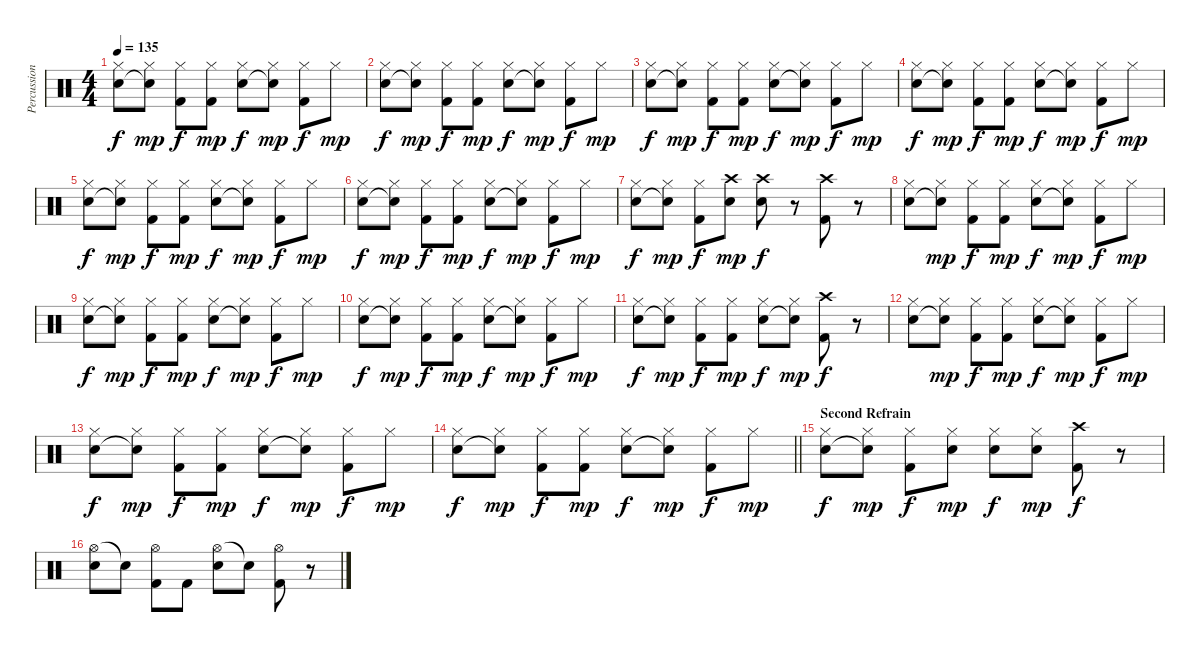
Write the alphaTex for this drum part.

\track ("Percussion" "Percussion") {instrument percussion}
\staff {score}
\articulation defaults
\ts (4 4)
\tempo 135
\clef neutral
\ks c
("Hi-Hat (closed)" "Electric Snare (hit)").8{dy f} ("Hi-Hat (closed)" "Electric Snare (hit)"{t}).8{dy mp} ("Hi-Hat (closed)" "Kick (hit) 2").8{dy f} ("Hi-Hat (closed)" "Kick (hit) 2").8{dy mp} ("Hi-Hat (closed)" "Electric Snare (hit)").8{dy f} ("Hi-Hat (closed)" "Electric Snare (hit)"{t}).8{dy mp} ("Hi-Hat (closed)" "Kick (hit) 2").8{dy f} "Hi-Hat (closed)".8{dy mp} |
("Hi-Hat (closed)" "Electric Snare (hit)").8{dy f} ("Hi-Hat (closed)" "Electric Snare (hit)"{t}).8{dy mp} ("Hi-Hat (closed)" "Kick (hit) 2").8{dy f} ("Hi-Hat (closed)" "Kick (hit) 2").8{dy mp} ("Hi-Hat (closed)" "Electric Snare (hit)").8{dy f} ("Hi-Hat (closed)" "Electric Snare (hit)"{t}).8{dy mp} ("Hi-Hat (closed)" "Kick (hit) 2").8{dy f} "Hi-Hat (closed)".8{dy mp} |
("Hi-Hat (closed)" "Electric Snare (hit)").8{dy f} ("Hi-Hat (closed)" "Electric Snare (hit)"{t}).8{dy mp} ("Hi-Hat (closed)" "Kick (hit) 2").8{dy f} ("Hi-Hat (closed)" "Kick (hit) 2").8{dy mp} ("Hi-Hat (closed)" "Electric Snare (hit)").8{dy f} ("Hi-Hat (closed)" "Electric Snare (hit)"{t}).8{dy mp} ("Hi-Hat (closed)" "Kick (hit) 2").8{dy f} "Hi-Hat (closed)".8{dy mp} |
("Hi-Hat (closed)" "Electric Snare (hit)").8{dy f} ("Hi-Hat (closed)" "Electric Snare (hit)"{t}).8{dy mp} ("Hi-Hat (closed)" "Kick (hit) 2").8{dy f} ("Hi-Hat (closed)" "Kick (hit) 2").8{dy mp} ("Hi-Hat (closed)" "Electric Snare (hit)").8{dy f} ("Hi-Hat (closed)" "Electric Snare (hit)"{t}).8{dy mp} ("Hi-Hat (closed)" "Kick (hit) 2").8{dy f} "Hi-Hat (closed)".8{dy mp} |
("Hi-Hat (closed)" "Electric Snare (hit)").8{dy f} ("Hi-Hat (closed)" "Electric Snare (hit)"{t}).8{dy mp} ("Hi-Hat (closed)" "Kick (hit) 2").8{dy f} ("Hi-Hat (closed)" "Kick (hit) 2").8{dy mp} ("Hi-Hat (closed)" "Electric Snare (hit)").8{dy f} ("Hi-Hat (closed)" "Electric Snare (hit)"{t}).8{dy mp} ("Hi-Hat (closed)" "Kick (hit) 2").8{dy f} "Hi-Hat (closed)".8{dy mp} |
("Hi-Hat (closed)" "Electric Snare (hit)").8{dy f} ("Hi-Hat (closed)" "Electric Snare (hit)"{t}).8{dy mp} ("Hi-Hat (closed)" "Kick (hit) 2").8{dy f} ("Hi-Hat (closed)" "Kick (hit) 2").8{dy mp} ("Hi-Hat (closed)" "Electric Snare (hit)").8{dy f} ("Hi-Hat (closed)" "Electric Snare (hit)"{t}).8{dy mp} ("Hi-Hat (closed)" "Kick (hit) 2").8{dy f} "Hi-Hat (closed)".8{dy mp} |
("Hi-Hat (closed)" "Electric Snare (hit)").8{dy f} ("Hi-Hat (closed)" "Electric Snare (hit)"{t}).8{dy mp} ("Hi-Hat (closed)" "Kick (hit) 2").8{dy f} ("Crash high (hit)" "Electric Snare (hit)").8{dy mp} ("Crash high (hit)" "Electric Snare (hit)").8{dy f} r.8 ("Crash high (hit)" "Kick (hit) 2").8 r.8 |
("Hi-Hat (closed)" "Electric Snare (hit)").8 ("Hi-Hat (closed)" "Electric Snare (hit)"{t}).8{dy mp} ("Hi-Hat (closed)" "Kick (hit) 2").8{dy f} ("Hi-Hat (closed)" "Kick (hit) 2").8{dy mp} ("Hi-Hat (closed)" "Electric Snare (hit)").8{dy f} ("Hi-Hat (closed)" "Electric Snare (hit)"{t}).8{dy mp} ("Hi-Hat (closed)" "Kick (hit) 2").8{dy f} "Hi-Hat (closed)".8{dy mp} |
("Hi-Hat (closed)" "Electric Snare (hit)").8{dy f} ("Hi-Hat (closed)" "Electric Snare (hit)"{t}).8{dy mp} ("Hi-Hat (closed)" "Kick (hit) 2").8{dy f} ("Hi-Hat (closed)" "Kick (hit) 2").8{dy mp} ("Hi-Hat (closed)" "Electric Snare (hit)").8{dy f} ("Hi-Hat (closed)" "Electric Snare (hit)"{t}).8{dy mp} ("Hi-Hat (closed)" "Kick (hit) 2").8{dy f} "Hi-Hat (closed)".8{dy mp} |
("Hi-Hat (closed)" "Electric Snare (hit)").8{dy f} ("Hi-Hat (closed)" "Electric Snare (hit)"{t}).8{dy mp} ("Hi-Hat (closed)" "Kick (hit) 2").8{dy f} ("Hi-Hat (closed)" "Kick (hit) 2").8{dy mp} ("Hi-Hat (closed)" "Electric Snare (hit)").8{dy f} ("Hi-Hat (closed)" "Electric Snare (hit)"{t}).8{dy mp} ("Hi-Hat (closed)" "Kick (hit) 2").8{dy f} "Hi-Hat (closed)".8{dy mp} |
("Hi-Hat (closed)" "Electric Snare (hit)").8{dy f} ("Hi-Hat (closed)" "Electric Snare (hit)"{t}).8{dy mp} ("Hi-Hat (closed)" "Kick (hit) 2").8{dy f} ("Hi-Hat (closed)" "Kick (hit) 2").8{dy mp} ("Hi-Hat (closed)" "Electric Snare (hit)").8{dy f} ("Hi-Hat (closed)" "Electric Snare (hit)"{t}).8{dy mp} ("Crash high (hit)" "Kick (hit) 2").8{dy f} r.8 |
("Hi-Hat (closed)" "Electric Snare (hit)").8 ("Hi-Hat (closed)" "Electric Snare (hit)"{t}).8{dy mp} ("Hi-Hat (closed)" "Kick (hit) 2").8{dy f} ("Hi-Hat (closed)" "Kick (hit) 2").8{dy mp} ("Hi-Hat (closed)" "Electric Snare (hit)").8{dy f} ("Hi-Hat (closed)" "Electric Snare (hit)"{t}).8{dy mp} ("Hi-Hat (closed)" "Kick (hit) 2").8{dy f} "Hi-Hat (closed)".8{dy mp} |
("Hi-Hat (closed)" "Electric Snare (hit)").8{dy f} ("Hi-Hat (closed)" "Electric Snare (hit)"{t}).8{dy mp} ("Hi-Hat (closed)" "Kick (hit) 2").8{dy f} ("Hi-Hat (closed)" "Kick (hit) 2").8{dy mp} ("Hi-Hat (closed)" "Electric Snare (hit)").8{dy f} ("Hi-Hat (closed)" "Electric Snare (hit)"{t}).8{dy mp} ("Hi-Hat (closed)" "Kick (hit) 2").8{dy f} "Hi-Hat (closed)".8{dy mp} |
\barLineRight lightlight
("Hi-Hat (closed)" "Electric Snare (hit)").8{dy f} ("Hi-Hat (closed)" "Electric Snare (hit)"{t}).8{dy mp} ("Hi-Hat (closed)" "Kick (hit) 2").8{dy f} ("Hi-Hat (closed)" "Kick (hit) 2").8{dy mp} ("Hi-Hat (closed)" "Electric Snare (hit)").8{dy f} ("Hi-Hat (closed)" "Electric Snare (hit)"{t}).8{dy mp} ("Hi-Hat (closed)" "Kick (hit) 2").8{dy f} "Hi-Hat (closed)".8{dy mp} |
\section ("" "Second Refrain")
("Hi-Hat (closed)" "Electric Snare (hit)").8{dy f} ("Hi-Hat (closed)" "Electric Snare (hit)"{t}).8{dy mp} ("Hi-Hat (closed)" "Kick (hit) 2").8{dy f} ("Hi-Hat (closed)" "Electric Snare (hit)").8{dy mp} ("Hi-Hat (closed)" "Electric Snare (hit)").8{dy f} ("Hi-Hat (closed)" "Electric Snare (hit)").8{dy mp} ("Crash high (hit)" "Kick (hit) 2").8{dy f} r.8 |
("Hi-Hat (open)" "Electric Snare (hit)").8 "Electric Snare (hit)"{t}.8 ("Hi-Hat (open)" "Kick (hit) 2").8 "Kick (hit) 2".8 ("Hi-Hat (open)" "Electric Snare (hit)").8 "Electric Snare (hit)"{t}.8 ("Hi-Hat (open)" "Kick (hit) 2").8 r.8
